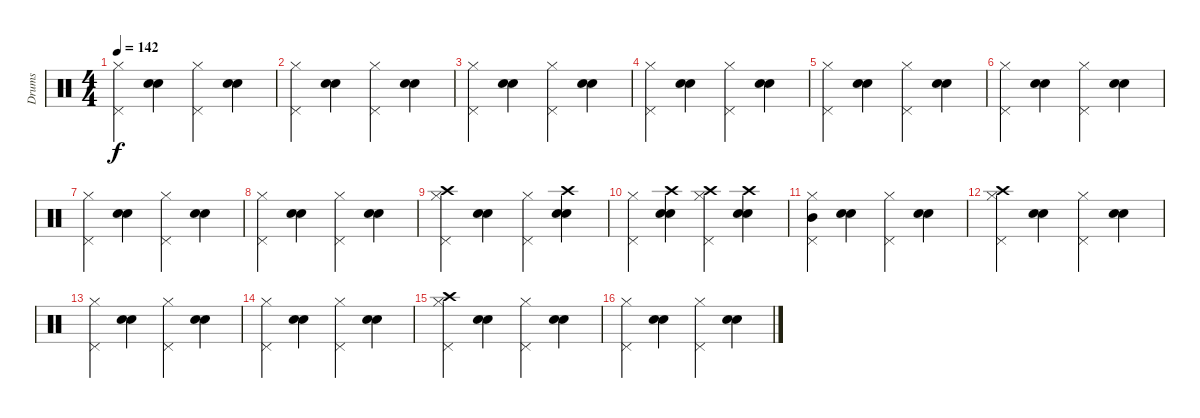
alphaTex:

\track ("Drums" "Drums") {instrument percussion}
\staff {score}
\articulation defaults
\ts (4 4)
\tempo 142
\clef neutral
\ks c
("Hi-Hat (closed)" "Pedal Hi-Hat (hit)").4{dy f} ("Snare (hit) 2" "Electric Snare (hit)").4 ("Hi-Hat (closed)" "Pedal Hi-Hat (hit)").4 ("Snare (hit) 2" "Electric Snare (hit)").4 |
("Hi-Hat (closed)" "Pedal Hi-Hat (hit)").4 ("Snare (hit) 2" "Electric Snare (hit)").4 ("Hi-Hat (closed)" "Pedal Hi-Hat (hit)").4 ("Snare (hit) 2" "Electric Snare (hit)").4 |
("Hi-Hat (closed)" "Pedal Hi-Hat (hit)").4 ("Snare (hit) 2" "Electric Snare (hit)").4 ("Hi-Hat (closed)" "Pedal Hi-Hat (hit)").4 ("Snare (hit) 2" "Electric Snare (hit)").4 |
("Hi-Hat (closed)" "Pedal Hi-Hat (hit)").4 ("Snare (hit) 2" "Electric Snare (hit)").4 ("Hi-Hat (closed)" "Pedal Hi-Hat (hit)").4 ("Snare (hit) 2" "Electric Snare (hit)").4 |
("Hi-Hat (closed)" "Pedal Hi-Hat (hit)").4 ("Snare (hit) 2" "Electric Snare (hit)").4 ("Hi-Hat (closed)" "Pedal Hi-Hat (hit)").4 ("Snare (hit) 2" "Electric Snare (hit)").4 |
("Hi-Hat (closed)" "Pedal Hi-Hat (hit)").4 ("Snare (hit) 2" "Electric Snare (hit)").4 ("Hi-Hat (closed)" "Pedal Hi-Hat (hit)").4 ("Snare (hit) 2" "Electric Snare (hit)").4 |
("Hi-Hat (closed)" "Pedal Hi-Hat (hit)").4 ("Snare (hit) 2" "Electric Snare (hit)").4 ("Hi-Hat (closed)" "Pedal Hi-Hat (hit)").4 ("Snare (hit) 2" "Electric Snare (hit)").4 |
("Hi-Hat (closed)" "Pedal Hi-Hat (hit)").4 ("Snare (hit) 2" "Electric Snare (hit)").4 ("Hi-Hat (closed)" "Pedal Hi-Hat (hit)").4 ("Snare (hit) 2" "Electric Snare (hit)").4 |
("Crash high (hit)" "Hi-Hat (closed)" "Pedal Hi-Hat (hit)").4 ("Snare (hit) 2" "Electric Snare (hit)").4 ("Hi-Hat (closed)" "Pedal Hi-Hat (hit)").4 ("Crash high (hit)" "Snare (hit) 2" "Electric Snare (hit)").4 |
("Hi-Hat (closed)" "Pedal Hi-Hat (hit)").4 ("Crash high (hit)" "Snare (hit) 2" "Electric Snare (hit)").4 ("Crash high (hit)" "Hi-Hat (closed)" "Pedal Hi-Hat (hit)").4 ("Crash high (hit)" "Snare (hit) 2" "Electric Snare (hit)").4 |
("Mid Tom (hit)" "Hi-Hat (closed)" "Pedal Hi-Hat (hit)").4 ("Snare (hit) 2" "Electric Snare (hit)").4 ("Hi-Hat (closed)" "Pedal Hi-Hat (hit)").4 ("Snare (hit) 2" "Electric Snare (hit)").4 |
("Crash high (hit)" "Hi-Hat (closed)" "Pedal Hi-Hat (hit)").4 ("Snare (hit) 2" "Electric Snare (hit)").4 ("Hi-Hat (closed)" "Pedal Hi-Hat (hit)").4 ("Snare (hit) 2" "Electric Snare (hit)").4 |
("Hi-Hat (closed)" "Pedal Hi-Hat (hit)").4 ("Snare (hit) 2" "Electric Snare (hit)").4 ("Hi-Hat (closed)" "Pedal Hi-Hat (hit)").4 ("Snare (hit) 2" "Electric Snare (hit)").4 |
("Hi-Hat (closed)" "Pedal Hi-Hat (hit)").4 ("Snare (hit) 2" "Electric Snare (hit)").4 ("Hi-Hat (closed)" "Pedal Hi-Hat (hit)").4 ("Snare (hit) 2" "Electric Snare (hit)").4 |
("Crash high (hit)" "Hi-Hat (closed)" "Pedal Hi-Hat (hit)").4 ("Snare (hit) 2" "Electric Snare (hit)").4 ("Hi-Hat (closed)" "Pedal Hi-Hat (hit)").4 ("Snare (hit) 2" "Electric Snare (hit)").4 |
("Hi-Hat (closed)" "Pedal Hi-Hat (hit)").4 ("Snare (hit) 2" "Electric Snare (hit)").4 ("Hi-Hat (closed)" "Pedal Hi-Hat (hit)").4 ("Snare (hit) 2" "Electric Snare (hit)").4
